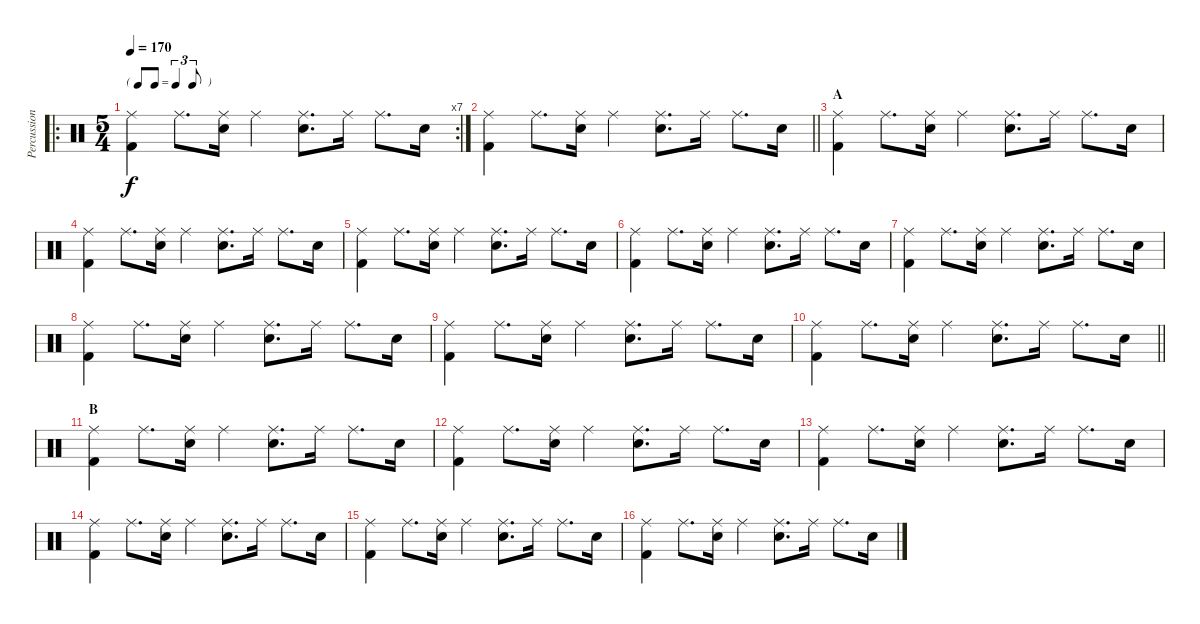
\track ("Percussion" "Percussion") {instrument percussion}
\staff {score}
\articulation defaults
\ro
\rc 7
\ts (5 4)
\tf triplet8th
\tempo 170
\clef neutral
\ks c
("Ride (middle)" "Kick (hit) 2").4{dy f} "Ride (middle)".8{d} ("Ride (middle)" "Electric Snare (hit)").16 "Ride (middle)".4 ("Ride (middle)" "Electric Snare (hit)").8{d} "Ride (middle)".16 "Ride (middle)".8{d} "Electric Snare (hit)".16 |
\barLineRight lightlight
("Ride (middle)" "Kick (hit) 2").4 "Ride (middle)".8{d} ("Ride (middle)" "Electric Snare (hit)").16 "Ride (middle)".4 ("Ride (middle)" "Electric Snare (hit)").8{d} "Ride (middle)".16 "Ride (middle)".8{d} "Electric Snare (hit)".16 |
\section ("" "A")
("Ride (middle)" "Kick (hit) 2").4 "Ride (middle)".8{d} ("Ride (middle)" "Electric Snare (hit)").16 "Ride (middle)".4 ("Ride (middle)" "Electric Snare (hit)").8{d} "Ride (middle)".16 "Ride (middle)".8{d} "Electric Snare (hit)".16 |
("Ride (middle)" "Kick (hit) 2").4 "Ride (middle)".8{d} ("Ride (middle)" "Electric Snare (hit)").16 "Ride (middle)".4 ("Ride (middle)" "Electric Snare (hit)").8{d} "Ride (middle)".16 "Ride (middle)".8{d} "Electric Snare (hit)".16 |
("Ride (middle)" "Kick (hit) 2").4 "Ride (middle)".8{d} ("Ride (middle)" "Electric Snare (hit)").16 "Ride (middle)".4 ("Ride (middle)" "Electric Snare (hit)").8{d} "Ride (middle)".16 "Ride (middle)".8{d} "Electric Snare (hit)".16 |
("Ride (middle)" "Kick (hit) 2").4 "Ride (middle)".8{d} ("Ride (middle)" "Electric Snare (hit)").16 "Ride (middle)".4 ("Ride (middle)" "Electric Snare (hit)").8{d} "Ride (middle)".16 "Ride (middle)".8{d} "Electric Snare (hit)".16 |
("Ride (middle)" "Kick (hit) 2").4 "Ride (middle)".8{d} ("Ride (middle)" "Electric Snare (hit)").16 "Ride (middle)".4 ("Ride (middle)" "Electric Snare (hit)").8{d} "Ride (middle)".16 "Ride (middle)".8{d} "Electric Snare (hit)".16 |
("Ride (middle)" "Kick (hit) 2").4 "Ride (middle)".8{d} ("Ride (middle)" "Electric Snare (hit)").16 "Ride (middle)".4 ("Ride (middle)" "Electric Snare (hit)").8{d} "Ride (middle)".16 "Ride (middle)".8{d} "Electric Snare (hit)".16 |
("Ride (middle)" "Kick (hit) 2").4 "Ride (middle)".8{d} ("Ride (middle)" "Electric Snare (hit)").16 "Ride (middle)".4 ("Ride (middle)" "Electric Snare (hit)").8{d} "Ride (middle)".16 "Ride (middle)".8{d} "Electric Snare (hit)".16 |
\barLineRight lightlight
("Ride (middle)" "Kick (hit) 2").4 "Ride (middle)".8{d} ("Ride (middle)" "Electric Snare (hit)").16 "Ride (middle)".4 ("Ride (middle)" "Electric Snare (hit)").8{d} "Ride (middle)".16 "Ride (middle)".8{d} "Electric Snare (hit)".16 |
\section ("" "B")
("Ride (middle)" "Kick (hit) 2").4 "Ride (middle)".8{d} ("Ride (middle)" "Electric Snare (hit)").16 "Ride (middle)".4 ("Ride (middle)" "Electric Snare (hit)").8{d} "Ride (middle)".16 "Ride (middle)".8{d} "Electric Snare (hit)".16 |
("Ride (middle)" "Kick (hit) 2").4 "Ride (middle)".8{d} ("Ride (middle)" "Electric Snare (hit)").16 "Ride (middle)".4 ("Ride (middle)" "Electric Snare (hit)").8{d} "Ride (middle)".16 "Ride (middle)".8{d} "Electric Snare (hit)".16 |
("Ride (middle)" "Kick (hit) 2").4 "Ride (middle)".8{d} ("Ride (middle)" "Electric Snare (hit)").16 "Ride (middle)".4 ("Ride (middle)" "Electric Snare (hit)").8{d} "Ride (middle)".16 "Ride (middle)".8{d} "Electric Snare (hit)".16 |
("Ride (middle)" "Kick (hit) 2").4 "Ride (middle)".8{d} ("Ride (middle)" "Electric Snare (hit)").16 "Ride (middle)".4 ("Ride (middle)" "Electric Snare (hit)").8{d} "Ride (middle)".16 "Ride (middle)".8{d} "Electric Snare (hit)".16 |
("Ride (middle)" "Kick (hit) 2").4 "Ride (middle)".8{d} ("Ride (middle)" "Electric Snare (hit)").16 "Ride (middle)".4 ("Ride (middle)" "Electric Snare (hit)").8{d} "Ride (middle)".16 "Ride (middle)".8{d} "Electric Snare (hit)".16 |
("Ride (middle)" "Kick (hit) 2").4 "Ride (middle)".8{d} ("Ride (middle)" "Electric Snare (hit)").16 "Ride (middle)".4 ("Ride (middle)" "Electric Snare (hit)").8{d} "Ride (middle)".16 "Ride (middle)".8{d} "Electric Snare (hit)".16
